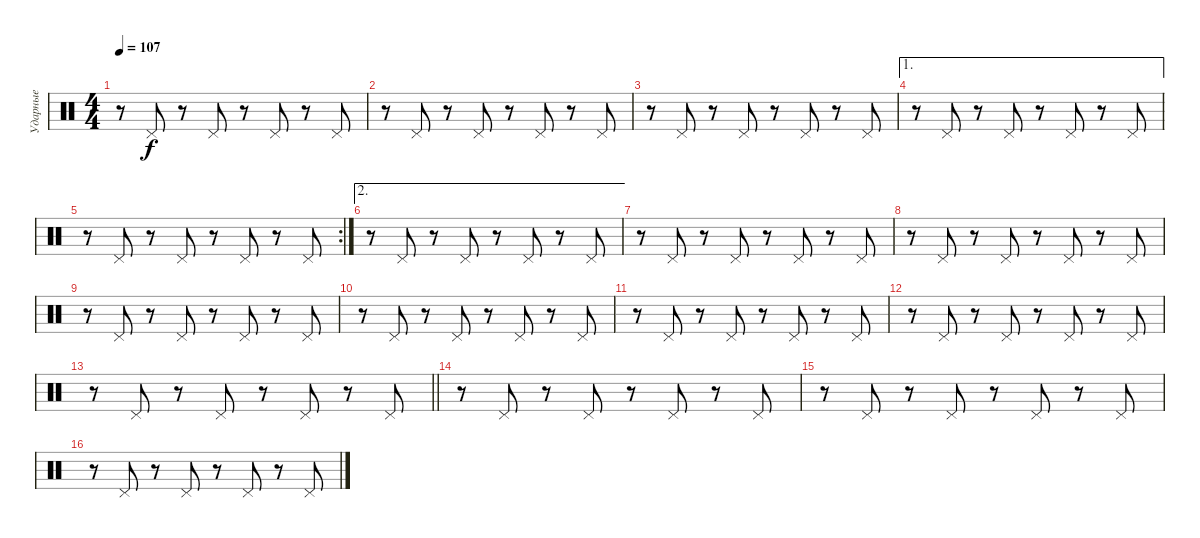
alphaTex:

\track ("Ударные" "Ударные") {instrument percussion}
\staff {score}
\articulation defaults
\ts (4 4)
\tempo 107
\clef neutral
\ks c
r.8{dy f} "Pedal Hi-Hat (hit)".8 r.8 "Pedal Hi-Hat (hit)".8 r.8 "Pedal Hi-Hat (hit)".8 r.8 "Pedal Hi-Hat (hit)".8 |
r.8 "Pedal Hi-Hat (hit)".8 r.8 "Pedal Hi-Hat (hit)".8 r.8 "Pedal Hi-Hat (hit)".8 r.8 "Pedal Hi-Hat (hit)".8 |
r.8 "Pedal Hi-Hat (hit)".8 r.8 "Pedal Hi-Hat (hit)".8 r.8 "Pedal Hi-Hat (hit)".8 r.8 "Pedal Hi-Hat (hit)".8 |
\ae 1
r.8 "Pedal Hi-Hat (hit)".8 r.8 "Pedal Hi-Hat (hit)".8 r.8 "Pedal Hi-Hat (hit)".8 r.8 "Pedal Hi-Hat (hit)".8 |
\rc 2
r.8 "Pedal Hi-Hat (hit)".8 r.8 "Pedal Hi-Hat (hit)".8 r.8 "Pedal Hi-Hat (hit)".8 r.8 "Pedal Hi-Hat (hit)".8 |
\ae 2
r.8 "Pedal Hi-Hat (hit)".8 r.8 "Pedal Hi-Hat (hit)".8 r.8 "Pedal Hi-Hat (hit)".8 r.8 "Pedal Hi-Hat (hit)".8 |
r.8 "Pedal Hi-Hat (hit)".8 r.8 "Pedal Hi-Hat (hit)".8 r.8 "Pedal Hi-Hat (hit)".8 r.8 "Pedal Hi-Hat (hit)".8 |
r.8 "Pedal Hi-Hat (hit)".8 r.8 "Pedal Hi-Hat (hit)".8 r.8 "Pedal Hi-Hat (hit)".8 r.8 "Pedal Hi-Hat (hit)".8 |
r.8 "Pedal Hi-Hat (hit)".8 r.8 "Pedal Hi-Hat (hit)".8 r.8 "Pedal Hi-Hat (hit)".8 r.8 "Pedal Hi-Hat (hit)".8 |
r.8 "Pedal Hi-Hat (hit)".8 r.8 "Pedal Hi-Hat (hit)".8 r.8 "Pedal Hi-Hat (hit)".8 r.8 "Pedal Hi-Hat (hit)".8 |
r.8 "Pedal Hi-Hat (hit)".8 r.8 "Pedal Hi-Hat (hit)".8 r.8 "Pedal Hi-Hat (hit)".8 r.8 "Pedal Hi-Hat (hit)".8 |
r.8 "Pedal Hi-Hat (hit)".8 r.8 "Pedal Hi-Hat (hit)".8 r.8 "Pedal Hi-Hat (hit)".8 r.8 "Pedal Hi-Hat (hit)".8 |
\barLineRight lightlight
r.8 "Pedal Hi-Hat (hit)".8 r.8 "Pedal Hi-Hat (hit)".8 r.8 "Pedal Hi-Hat (hit)".8 r.8 "Pedal Hi-Hat (hit)".8 |
r.8 "Pedal Hi-Hat (hit)".8 r.8 "Pedal Hi-Hat (hit)".8 r.8 "Pedal Hi-Hat (hit)".8 r.8 "Pedal Hi-Hat (hit)".8 |
r.8 "Pedal Hi-Hat (hit)".8 r.8 "Pedal Hi-Hat (hit)".8 r.8 "Pedal Hi-Hat (hit)".8 r.8 "Pedal Hi-Hat (hit)".8 |
r.8 "Pedal Hi-Hat (hit)".8 r.8 "Pedal Hi-Hat (hit)".8 r.8 "Pedal Hi-Hat (hit)".8 r.8 "Pedal Hi-Hat (hit)".8
